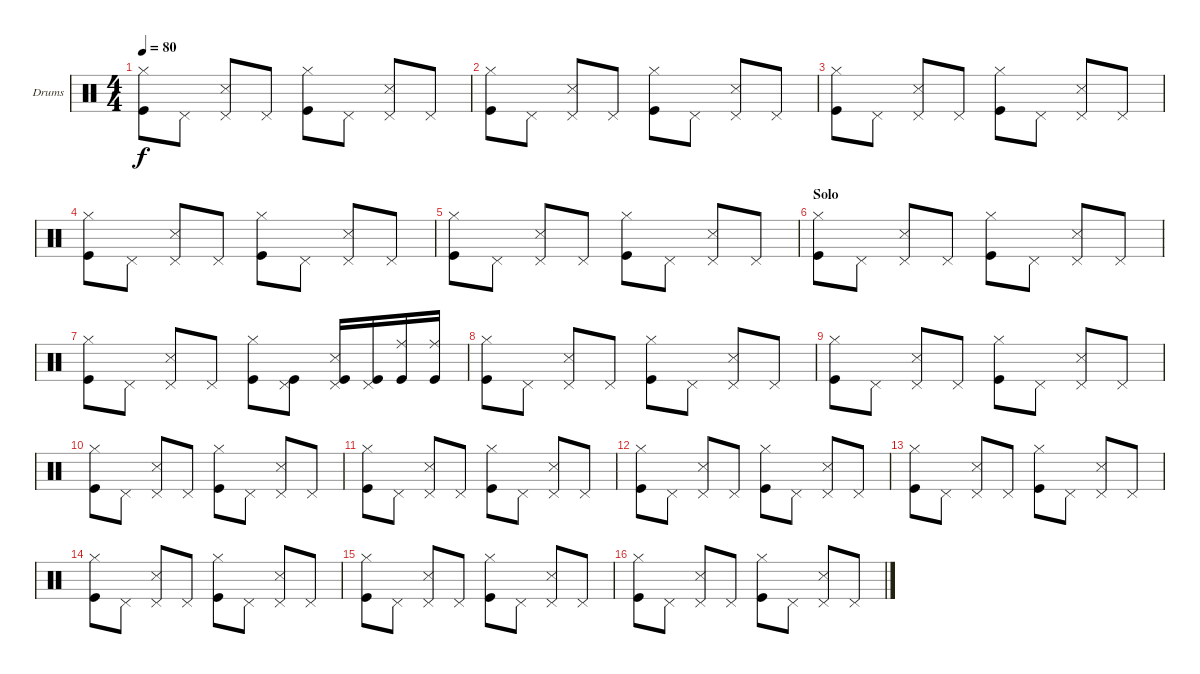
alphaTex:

\defaultSystemsLayout 4
\bracketExtendMode groupsimilarinstruments
\firstSystemTrackNameOrientation horizontal
\otherSystemsTrackNameOrientation horizontal
\track ("Drumkit" "Drums") {instrument percussion}
\staff {score}
\articulation defaults
\ts (4 4)
\tempo 80
\clef neutral
\ks c
("Hi-Hat (closed)" "Kick (hit)").8{dy f} "Pedal Hi-Hat (hit)".8 ("Pedal Hi-Hat (hit)" "Snare (side stick) 3").8 "Pedal Hi-Hat (hit)".8 ("Hi-Hat (closed)" "Kick (hit)").8 "Pedal Hi-Hat (hit)".8 ("Pedal Hi-Hat (hit)" "Snare (side stick) 3").8 "Pedal Hi-Hat (hit)".8 |
("Hi-Hat (closed)" "Kick (hit)").8 "Pedal Hi-Hat (hit)".8 ("Pedal Hi-Hat (hit)" "Snare (side stick) 3").8 "Pedal Hi-Hat (hit)".8 ("Hi-Hat (closed)" "Kick (hit)").8 "Pedal Hi-Hat (hit)".8 ("Pedal Hi-Hat (hit)" "Snare (side stick) 3").8 "Pedal Hi-Hat (hit)".8 |
("Hi-Hat (closed)" "Kick (hit)").8 "Pedal Hi-Hat (hit)".8 ("Pedal Hi-Hat (hit)" "Snare (side stick) 3").8 "Pedal Hi-Hat (hit)".8 ("Hi-Hat (closed)" "Kick (hit)").8 "Pedal Hi-Hat (hit)".8 ("Pedal Hi-Hat (hit)" "Snare (side stick) 3").8 "Pedal Hi-Hat (hit)".8 |
("Hi-Hat (closed)" "Kick (hit)").8 "Pedal Hi-Hat (hit)".8 ("Pedal Hi-Hat (hit)" "Snare (side stick) 3").8 "Pedal Hi-Hat (hit)".8 ("Hi-Hat (closed)" "Kick (hit)").8 "Pedal Hi-Hat (hit)".8 ("Pedal Hi-Hat (hit)" "Snare (side stick) 3").8 "Pedal Hi-Hat (hit)".8 |
("Hi-Hat (closed)" "Kick (hit)").8 "Pedal Hi-Hat (hit)".8 ("Pedal Hi-Hat (hit)" "Snare (side stick) 3").8 "Pedal Hi-Hat (hit)".8 ("Hi-Hat (closed)" "Kick (hit)").8 "Pedal Hi-Hat (hit)".8 ("Pedal Hi-Hat (hit)" "Snare (side stick) 3").8 "Pedal Hi-Hat (hit)".8 |
\section ("" "Solo")
("Hi-Hat (closed)" "Kick (hit)").8 "Pedal Hi-Hat (hit)".8 ("Pedal Hi-Hat (hit)" "Snare (side stick) 3").8 "Pedal Hi-Hat (hit)".8 ("Hi-Hat (closed)" "Kick (hit)").8 "Pedal Hi-Hat (hit)".8 ("Pedal Hi-Hat (hit)" "Snare (side stick) 3").8 "Pedal Hi-Hat (hit)".8 |
("Hi-Hat (closed)" "Kick (hit)").8 "Pedal Hi-Hat (hit)".8 ("Pedal Hi-Hat (hit)" "Snare (side stick) 3").8 "Pedal Hi-Hat (hit)".8 ("Hi-Hat (closed)" "Kick (hit)").8 ("Pedal Hi-Hat (hit)" "Kick (hit)").8 ("Pedal Hi-Hat (hit)" "Snare (side stick) 3" "Kick (hit)").16 ("Pedal Hi-Hat (hit)" "Kick (hit)").16 ("Kick (hit)" "Ride (middle)").16 ("Kick (hit)" "Ride (middle)").16 |
("Hi-Hat (closed)" "Kick (hit)").8 "Pedal Hi-Hat (hit)".8 ("Pedal Hi-Hat (hit)" "Snare (side stick) 3").8 "Pedal Hi-Hat (hit)".8 ("Hi-Hat (closed)" "Kick (hit)").8 "Pedal Hi-Hat (hit)".8 ("Pedal Hi-Hat (hit)" "Snare (side stick) 3").8 "Pedal Hi-Hat (hit)".8 |
("Hi-Hat (closed)" "Kick (hit)").8 "Pedal Hi-Hat (hit)".8 ("Pedal Hi-Hat (hit)" "Snare (side stick) 3").8 "Pedal Hi-Hat (hit)".8 ("Hi-Hat (closed)" "Kick (hit)").8 "Pedal Hi-Hat (hit)".8 ("Pedal Hi-Hat (hit)" "Snare (side stick) 3").8 "Pedal Hi-Hat (hit)".8 |
("Hi-Hat (closed)" "Kick (hit)").8 "Pedal Hi-Hat (hit)".8 ("Pedal Hi-Hat (hit)" "Snare (side stick) 3").8 "Pedal Hi-Hat (hit)".8 ("Hi-Hat (closed)" "Kick (hit)").8 "Pedal Hi-Hat (hit)".8 ("Pedal Hi-Hat (hit)" "Snare (side stick) 3").8 "Pedal Hi-Hat (hit)".8 |
("Hi-Hat (closed)" "Kick (hit)").8 "Pedal Hi-Hat (hit)".8 ("Pedal Hi-Hat (hit)" "Snare (side stick) 3").8 "Pedal Hi-Hat (hit)".8 ("Hi-Hat (closed)" "Kick (hit)").8 "Pedal Hi-Hat (hit)".8 ("Pedal Hi-Hat (hit)" "Snare (side stick) 3").8 "Pedal Hi-Hat (hit)".8 |
("Hi-Hat (closed)" "Kick (hit)").8 "Pedal Hi-Hat (hit)".8 ("Pedal Hi-Hat (hit)" "Snare (side stick) 3").8 "Pedal Hi-Hat (hit)".8 ("Hi-Hat (closed)" "Kick (hit)").8 "Pedal Hi-Hat (hit)".8 ("Pedal Hi-Hat (hit)" "Snare (side stick) 3").8 "Pedal Hi-Hat (hit)".8 |
("Hi-Hat (closed)" "Kick (hit)").8 "Pedal Hi-Hat (hit)".8 ("Pedal Hi-Hat (hit)" "Snare (side stick) 3").8 "Pedal Hi-Hat (hit)".8 ("Hi-Hat (closed)" "Kick (hit)").8 "Pedal Hi-Hat (hit)".8 ("Pedal Hi-Hat (hit)" "Snare (side stick) 3").8 "Pedal Hi-Hat (hit)".8 |
("Hi-Hat (closed)" "Kick (hit)").8 "Pedal Hi-Hat (hit)".8 ("Pedal Hi-Hat (hit)" "Snare (side stick) 3").8 "Pedal Hi-Hat (hit)".8 ("Hi-Hat (closed)" "Kick (hit)").8 "Pedal Hi-Hat (hit)".8 ("Pedal Hi-Hat (hit)" "Snare (side stick) 3").8 "Pedal Hi-Hat (hit)".8 |
("Hi-Hat (closed)" "Kick (hit)").8 "Pedal Hi-Hat (hit)".8 ("Pedal Hi-Hat (hit)" "Snare (side stick) 3").8 "Pedal Hi-Hat (hit)".8 ("Hi-Hat (closed)" "Kick (hit)").8 "Pedal Hi-Hat (hit)".8 ("Pedal Hi-Hat (hit)" "Snare (side stick) 3").8 "Pedal Hi-Hat (hit)".8 |
("Hi-Hat (closed)" "Kick (hit)").8 "Pedal Hi-Hat (hit)".8 ("Pedal Hi-Hat (hit)" "Snare (side stick) 3").8 "Pedal Hi-Hat (hit)".8 ("Hi-Hat (closed)" "Kick (hit)").8 "Pedal Hi-Hat (hit)".8 ("Pedal Hi-Hat (hit)" "Snare (side stick) 3").8 "Pedal Hi-Hat (hit)".8
